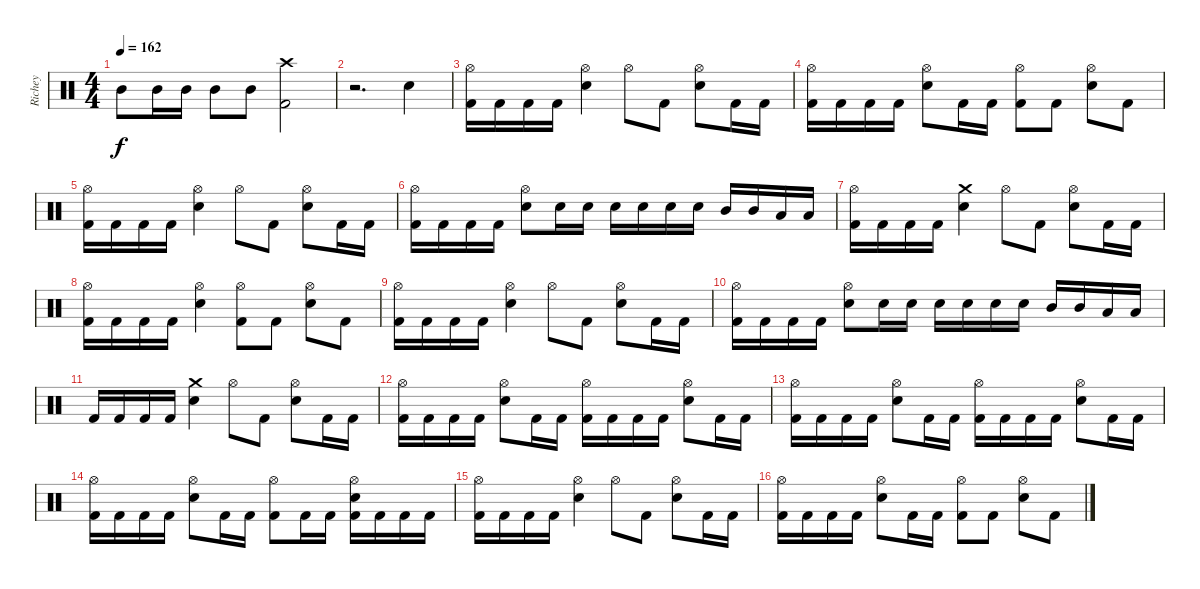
\track ("Richey" "Richey") {instrument percussion}
\staff {score}
\articulation defaults
\ts (4 4)
\tempo 162
\clef neutral
\ks c "Mid Tom (hit)".8{dy f} "Mid Tom (hit)".16 "Mid Tom (hit)".16 "Mid Tom (hit)".8 "Mid Tom (hit)".8
("Crash high (hit)" "Kick (hit) 2").2 |
r.2{d} "Snare (hit) 2".4 |
("Hi-Hat (open)" "Kick (hit) 2").16 "Kick (hit) 2".16 "Kick (hit) 2".16 "Kick (hit) 2".16 ("Hi-Hat (open)" "Snare (hit) 2").4 "Hi-Hat (open)".8 "Kick (hit) 2".8 ("Hi-Hat (open)" "Snare (hit) 2").8 "Kick (hit) 2".16 "Kick (hit) 2".16 |
("Hi-Hat (open)" "Kick (hit) 2").16 "Kick (hit) 2".16 "Kick (hit) 2".16 "Kick (hit) 2".16 ("Hi-Hat (open)" "Snare (hit) 2").8 "Kick (hit) 2".16 "Kick (hit) 2".16 ("Hi-Hat (open)" "Kick (hit) 2").8 "Kick (hit) 2".8 ("Hi-Hat (open)" "Snare (hit) 2").8 "Kick (hit) 2".8 |
("Hi-Hat (open)" "Kick (hit) 2").16 "Kick (hit) 2".16 "Kick (hit) 2".16 "Kick (hit) 2".16 ("Hi-Hat (open)" "Snare (hit) 2").4 "Hi-Hat (open)".8 "Kick (hit) 2".8 ("Hi-Hat (open)" "Snare (hit) 2").8 "Kick (hit) 2".16 "Kick (hit) 2".16 |
("Hi-Hat (open)" "Kick (hit) 2").16 "Kick (hit) 2".16 "Kick (hit) 2".16 "Kick (hit) 2".16 ("Hi-Hat (open)" "Snare (hit) 2").8 "Snare (hit) 2".16 "Snare (hit) 2".16 "Snare (hit) 2".16 "Snare (hit) 2".16 "Snare (hit) 2".16 "Snare (hit) 2".16 "Mid Tom (hit)".16 "Mid Tom (hit)".16 "Low Tom (hit)".16 "Low Tom (hit)".16 |
("Hi-Hat (open)" "Kick (hit) 2").16 "Kick (hit) 2".16 "Kick (hit) 2".16 "Kick (hit) 2".16 ("Crash medium (hit)" "Snare (hit) 2").4 "Hi-Hat (open)".8 "Kick (hit) 2".8 ("Hi-Hat (open)" "Snare (hit) 2").8 "Kick (hit) 2".16 "Kick (hit) 2".16 |
("Hi-Hat (open)" "Kick (hit) 2").16 "Kick (hit) 2".16 "Kick (hit) 2".16 "Kick (hit) 2".16 ("Hi-Hat (open)" "Snare (hit) 2").4 ("Hi-Hat (open)" "Kick (hit) 2").8 "Kick (hit) 2".8 ("Hi-Hat (open)" "Snare (hit) 2").8 "Kick (hit) 2".8 |
("Hi-Hat (open)" "Kick (hit) 2").16 "Kick (hit) 2".16 "Kick (hit) 2".16 "Kick (hit) 2".16 ("Hi-Hat (open)" "Snare (hit) 2").4 "Hi-Hat (open)".8 "Kick (hit) 2".8 ("Hi-Hat (open)" "Snare (hit) 2").8 "Kick (hit) 2".16 "Kick (hit) 2".16 |
("Hi-Hat (open)" "Kick (hit) 2").16 "Kick (hit) 2".16 "Kick (hit) 2".16 "Kick (hit) 2".16 ("Hi-Hat (open)" "Snare (hit) 2").8 "Snare (hit) 2".16 "Snare (hit) 2".16 "Snare (hit) 2".16 "Snare (hit) 2".16 "Snare (hit) 2".16 "Snare (hit) 2".16 "Mid Tom (hit)".16 "Mid Tom (hit)".16 "Low Tom (hit)".16 "Low Tom (hit)".16 |
"Kick (hit) 2".16 "Kick (hit) 2".16 "Kick (hit) 2".16 "Kick (hit) 2".16 ("Crash medium (hit)" "Snare (hit) 2").4 "Hi-Hat (open)".8 "Kick (hit) 2".8 ("Hi-Hat (open)" "Snare (hit) 2").8 "Kick (hit) 2".16 "Kick (hit) 2".16 |
("Hi-Hat (open)" "Kick (hit) 2").16 "Kick (hit) 2".16 "Kick (hit) 2".16 "Kick (hit) 2".16 ("Hi-Hat (open)" "Snare (hit) 2").8 "Kick (hit) 2".16 "Kick (hit) 2".16 ("Hi-Hat (open)" "Kick (hit) 2").16 "Kick (hit) 2".16 "Kick (hit) 2".16 "Kick (hit) 2".16 ("Hi-Hat (open)" "Snare (hit) 2").8 "Kick (hit) 2".16 "Kick (hit) 2".16 |
("Hi-Hat (open)" "Kick (hit) 2").16 "Kick (hit) 2".16 "Kick (hit) 2".16 "Kick (hit) 2".16 ("Hi-Hat (open)" "Snare (hit) 2").8 "Kick (hit) 2".16 "Kick (hit) 2".16 ("Hi-Hat (open)" "Kick (hit) 2").16 "Kick (hit) 2".16 "Kick (hit) 2".16 "Kick (hit) 2".16 ("Hi-Hat (open)" "Snare (hit) 2").8 "Kick (hit) 2".16 "Kick (hit) 2".16 |
("Hi-Hat (open)" "Kick (hit) 2").16 "Kick (hit) 2".16 "Kick (hit) 2".16 "Kick (hit) 2".16 ("Hi-Hat (open)" "Snare (hit) 2").8 "Kick (hit) 2".16 "Kick (hit) 2".16 ("Hi-Hat (open)" "Kick (hit) 2").8 "Kick (hit) 2".16 "Kick (hit) 2".16 ("Hi-Hat (open)" "Snare (hit) 2" "Kick (hit) 2").16 "Kick (hit) 2".16 "Kick (hit) 2".16 "Kick (hit) 2".16 |
("Hi-Hat (open)" "Kick (hit) 2").16 "Kick (hit) 2".16 "Kick (hit) 2".16 "Kick (hit) 2".16 ("Hi-Hat (open)" "Snare (hit) 2").4 "Hi-Hat (open)".8 "Kick (hit) 2".8 ("Hi-Hat (open)" "Snare (hit) 2").8 "Kick (hit) 2".16 "Kick (hit) 2".16 |
("Hi-Hat (open)" "Kick (hit) 2").16 "Kick (hit) 2".16 "Kick (hit) 2".16 "Kick (hit) 2".16 ("Hi-Hat (open)" "Snare (hit) 2").8 "Kick (hit) 2".16 "Kick (hit) 2".16 ("Hi-Hat (open)" "Kick (hit) 2").8 "Kick (hit) 2".8 ("Hi-Hat (open)" "Snare (hit) 2").8 "Kick (hit) 2".8
